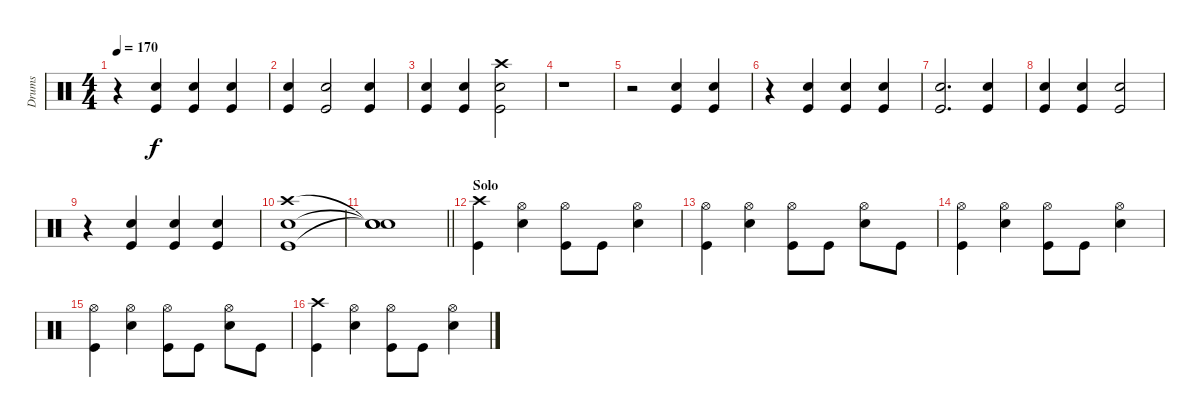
\track ("Drums" "Drums") {instrument percussion}
\staff {score}
\articulation defaults
\ts (4 4)
\tempo 170
\clef neutral
\ks c
r.4{dy f} ("Electric Snare (hit)" "Kick (hit)").4 ("Electric Snare (hit)" "Kick (hit)").4 ("Electric Snare (hit)" "Kick (hit)").4 |
("Electric Snare (hit)" "Kick (hit)").4 ("Electric Snare (hit)" "Kick (hit)").2 ("Electric Snare (hit)" "Kick (hit)").4 |
("Electric Snare (hit)" "Kick (hit)").4 ("Electric Snare (hit)" "Kick (hit)").4 ("Crash high (hit)" "Electric Snare (hit)" "Kick (hit)").2 |
r.1 |
r.2 ("Electric Snare (hit)" "Kick (hit)").4 ("Electric Snare (hit)" "Kick (hit)").4 |
r.4 ("Electric Snare (hit)" "Kick (hit)").4 ("Electric Snare (hit)" "Kick (hit)").4 ("Electric Snare (hit)" "Kick (hit)").4 |
("Electric Snare (hit)" "Kick (hit)").2{d} ("Electric Snare (hit)" "Kick (hit)").4 |
("Electric Snare (hit)" "Kick (hit)").4 ("Electric Snare (hit)" "Kick (hit)").4 ("Electric Snare (hit)" "Kick (hit)").2 |
r.4 ("Electric Snare (hit)" "Kick (hit)").4 ("Electric Snare (hit)" "Kick (hit)").4 ("Electric Snare (hit)" "Kick (hit)").4 |
("Crash high (hit)" "Electric Snare (hit)" "Kick (hit)").1 |
\barLineRight lightlight
("Snare (hit)"{t} "Snare (hit)"{t} "Snare (hit)"{t}).1 |
\section ("" "Solo")
("Crash high (hit)" "Kick (hit)").4 ("Hi-Hat (open)" "Electric Snare (hit)").4 ("Hi-Hat (open)" "Kick (hit)").8 "Kick (hit)".8 ("Hi-Hat (open)" "Electric Snare (hit)").4 |
("Hi-Hat (open)" "Kick (hit)").4 ("Hi-Hat (open)" "Electric Snare (hit)").4 ("Hi-Hat (open)" "Kick (hit)").8 "Kick (hit)".8 ("Hi-Hat (open)" "Electric Snare (hit)").8 "Kick (hit)".8 |
("Hi-Hat (open)" "Kick (hit)").4 ("Hi-Hat (open)" "Electric Snare (hit)").4 ("Hi-Hat (open)" "Kick (hit)").8 "Kick (hit)".8 ("Hi-Hat (open)" "Electric Snare (hit)").4 |
("Hi-Hat (open)" "Kick (hit)").4 ("Hi-Hat (open)" "Electric Snare (hit)").4 ("Hi-Hat (open)" "Kick (hit)").8 "Kick (hit)".8 ("Hi-Hat (open)" "Electric Snare (hit)").8 "Kick (hit)".8 |
("Crash high (hit)" "Kick (hit)").4 ("Hi-Hat (open)" "Electric Snare (hit)").4 ("Hi-Hat (open)" "Kick (hit)").8 "Kick (hit)".8 ("Hi-Hat (open)" "Electric Snare (hit)").4
